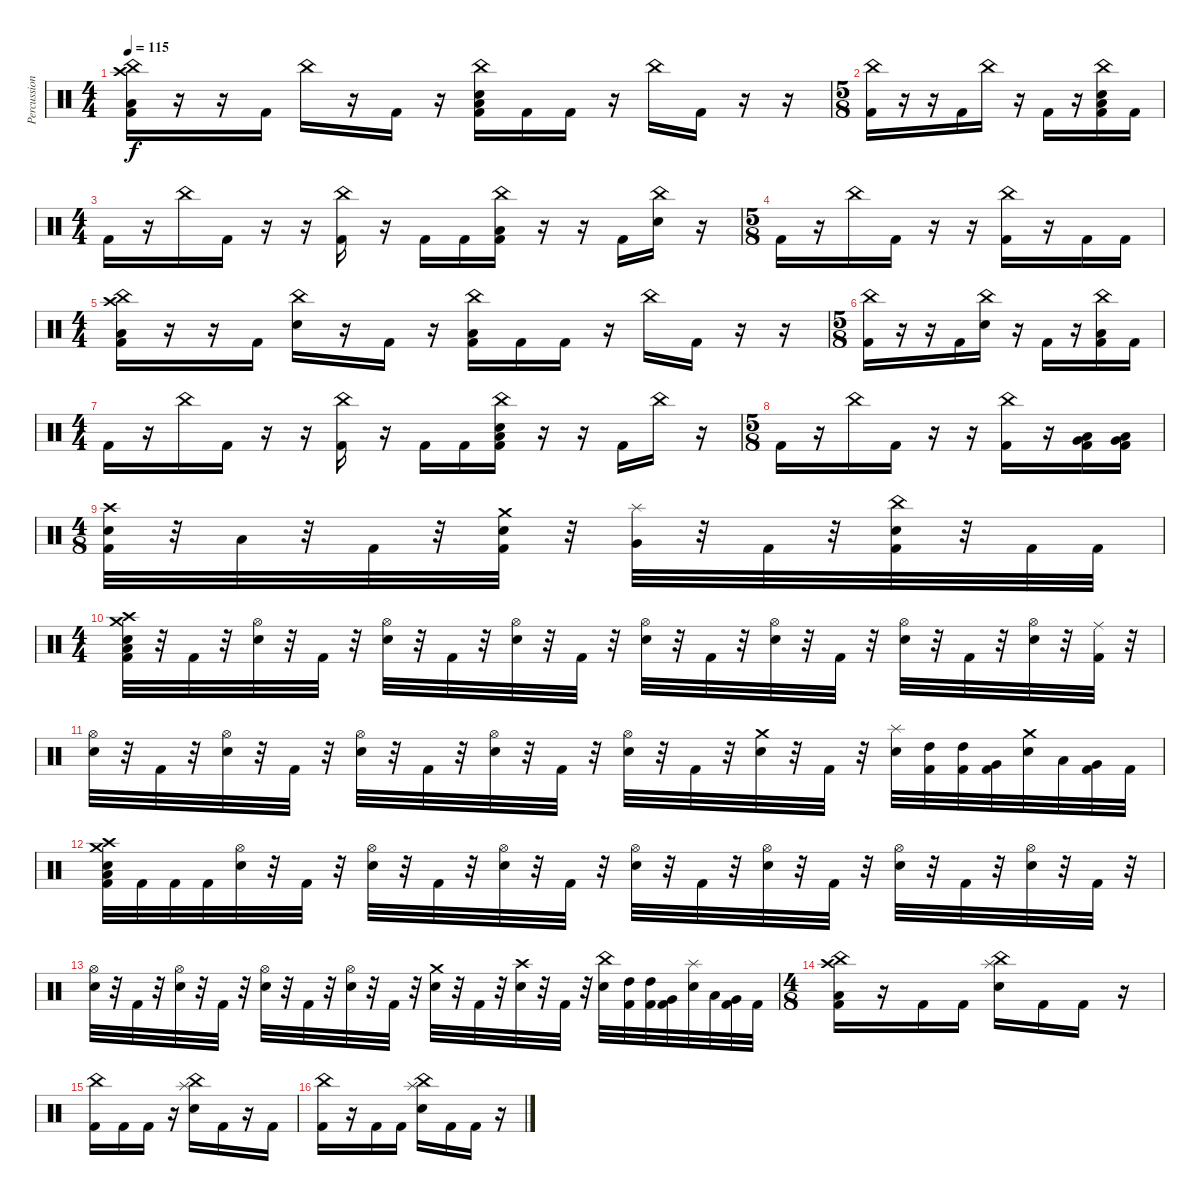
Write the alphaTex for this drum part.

\track ("Percussion" "Percussion") {instrument percussion}
\staff {score}
\articulation defaults
\ts (4 4)
\tempo 115
\clef neutral
\ks c
("China (hit)" "Crash high (hit)" "Low Floor Tom (hit)" "Kick (hit) 2").16{dy f} r.16 r.16 "Kick (hit) 2".16 "China (hit)".16 r.16 "Kick (hit) 2".16 r.16 ("China (hit)" "Electric Snare (hit)" "Low Floor Tom (hit)" "Kick (hit) 2").16 "Kick (hit) 2".16 "Kick (hit) 2".16 r.16 "China (hit)".16 "Kick (hit) 2".16 r.16 r.16 |
\ts (5 8)
("China (hit)" "Kick (hit) 2").16 r.16 r.16 "Kick (hit) 2".16 "China (hit)".16 r.16 "Kick (hit) 2".16 r.16 ("China (hit)" "Electric Snare (hit)" "Low Floor Tom (hit)" "Kick (hit) 2").16 "Kick (hit) 2".16 |
\ts (4 4)
"Kick (hit) 2".16 r.16 "China (hit)".16 "Kick (hit) 2".16 r.16 r.16 ("China (hit)" "Kick (hit) 2").16 r.16 "Kick (hit) 2".16 "Kick (hit) 2".16 ("China (hit)" "Low Floor Tom (hit)" "Kick (hit) 2").16 r.16 r.16 "Kick (hit) 2".16 ("China (hit)" "Electric Snare (hit)").16 r.16 |
\ts (5 8)
"Kick (hit) 2".16 r.16 "China (hit)".16 "Kick (hit) 2".16 r.16 r.16 ("China (hit)" "Kick (hit) 2").16 r.16 "Kick (hit) 2".16 "Kick (hit) 2".16 |
\ts (4 4)
("China (hit)" "Crash high (hit)" "Low Floor Tom (hit)" "Kick (hit) 2").16 r.16 r.16 "Kick (hit) 2".16 ("China (hit)" "Electric Snare (hit)").16 r.16 "Kick (hit) 2".16 r.16 ("China (hit)" "Low Floor Tom (hit)" "Kick (hit) 2").16 "Kick (hit) 2".16 "Kick (hit) 2".16 r.16 "China (hit)".16 "Kick (hit) 2".16 r.16 r.16 |
\ts (5 8)
("China (hit)" "Kick (hit) 2").16 r.16 r.16 "Kick (hit) 2".16 ("China (hit)" "Electric Snare (hit)").16 r.16 "Kick (hit) 2".16 r.16 ("China (hit)" "Low Floor Tom (hit)" "Kick (hit) 2").16 "Kick (hit) 2".16 |
\ts (4 4)
"Kick (hit) 2".16 r.16 "China (hit)".16 "Kick (hit) 2".16 r.16 r.16 ("China (hit)" "Kick (hit) 2").16 r.16 "Kick (hit) 2".16 "Kick (hit) 2".16 ("China (hit)" "Electric Snare (hit)" "Low Floor Tom (hit)" "Kick (hit) 2").16 r.16 r.16 "Kick (hit) 2".16 "China (hit)".16 r.16 |
\ts (5 8)
"Kick (hit) 2".16 r.16 "China (hit)".16 "Kick (hit) 2".16 r.16 r.16 ("China (hit)" "Kick (hit) 2").16 r.16 ("Very Low Tom (hit)" "Low Floor Tom (hit)" "Kick (hit) 2").16 ("Very Low Tom (hit)" "Low Floor Tom (hit)" "Kick (hit) 2").16 |
\ts (4 8)
("Crash high (hit)" "Electric Snare (hit)" "Kick (hit) 2").32 r.32 "Low Tom (hit)".32 r.32 "Kick (hit) 2".32 r.32 ("Crash medium (hit)" "Electric Snare (hit)" "Kick (hit) 2").32 r.32 ("Splash (hit)" "Very Low Tom (hit)").32 r.32 "Kick (hit) 2".32 r.32 ("China (hit)" "Electric Snare (hit)" "Kick (hit) 2").32 r.32 "Kick (hit) 2".32 "Kick (hit) 2".32 |
\ts (4 4)
("Crash high (hit)" "Crash medium (hit)" "Electric Snare (hit)" "Low Floor Tom (hit)" "Kick (hit) 2").32 r.32 "Kick (hit) 2".32 r.32 ("Hi-Hat (open)" "Electric Snare (hit)").32 r.32 "Kick (hit) 2".32 r.32 ("Hi-Hat (open)" "Electric Snare (hit)").32 r.32 "Kick (hit) 2".32 r.32 ("Hi-Hat (open)" "Electric Snare (hit)").32 r.32 "Kick (hit) 2".32 r.32 ("Hi-Hat (open)" "Electric Snare (hit)").32 r.32 "Kick (hit) 2".32 r.32 ("Hi-Hat (open)" "Electric Snare (hit)").32 r.32 "Kick (hit) 2".32 r.32 ("Hi-Hat (open)" "Electric Snare (hit)").32 r.32 "Kick (hit) 2".32 r.32 ("Hi-Hat (open)" "Electric Snare (hit)").32 r.32 ("Ride (middle)" "Kick (hit) 2").32 r.32 |
("Hi-Hat (open)" "Electric Snare (hit)").32 r.32 "Kick (hit) 2".32 r.32 ("Hi-Hat (open)" "Electric Snare (hit)").32 r.32 "Kick (hit) 2".32 r.32 ("Hi-Hat (open)" "Electric Snare (hit)").32 r.32 "Kick (hit) 2".32 r.32 ("Hi-Hat (open)" "Electric Snare (hit)").32 r.32 "Kick (hit) 2".32 r.32 ("Hi-Hat (open)" "Electric Snare (hit)").32 r.32 "Kick (hit) 2".32 r.32 ("Crash medium (hit)" "Electric Snare (hit)").32 r.32 "Kick (hit) 2".32 r.32 ("Splash (hit)" "Electric Snare (hit)").32 ("High Tom (hit)" "Kick (hit) 2").32 ("High Tom (hit)" "Kick (hit) 2").32 ("Very Low Tom (hit)" "Kick (hit) 2").32 ("Crash medium (hit)" "Electric Snare (hit)").32 "Low Tom (hit)".32 ("Very Low Tom (hit)" "Kick (hit) 2").32 "Kick (hit) 2".32 |
("Crash high (hit)" "Crash medium (hit)" "Electric Snare (hit)" "Low Floor Tom (hit)" "Kick (hit) 2").32 "Kick (hit) 2".32 "Kick (hit) 2".32 "Kick (hit) 2".32 ("Hi-Hat (open)" "Electric Snare (hit)").32 r.32 "Kick (hit) 2".32 r.32 ("Hi-Hat (open)" "Electric Snare (hit)").32 r.32 "Kick (hit) 2".32 r.32 ("Hi-Hat (open)" "Electric Snare (hit)").32 r.32 "Kick (hit) 2".32 r.32 ("Hi-Hat (open)" "Electric Snare (hit)").32 r.32 "Kick (hit) 2".32 r.32 ("Hi-Hat (open)" "Electric Snare (hit)").32 r.32 "Kick (hit) 2".32 r.32 ("Hi-Hat (open)" "Electric Snare (hit)").32 r.32 "Kick (hit) 2".32 r.32 ("Hi-Hat (open)" "Electric Snare (hit)").32 r.32 "Kick (hit) 2".32 r.32 |
("Hi-Hat (open)" "Electric Snare (hit)").32 r.32 "Kick (hit) 2".32 r.32 ("Hi-Hat (open)" "Electric Snare (hit)").32 r.32 "Kick (hit) 2".32 r.32 ("Hi-Hat (open)" "Electric Snare (hit)").32 r.32 "Kick (hit) 2".32 r.32 ("Hi-Hat (open)" "Electric Snare (hit)").32 r.32 "Kick (hit) 2".32 r.32 ("Crash medium (hit)" "Electric Snare (hit)").32 r.32 "Kick (hit) 2".32 r.32 ("Crash high (hit)" "Electric Snare (hit)").32 r.32 "Kick (hit) 2".32 r.32 ("China (hit)" "Electric Snare (hit)").32 ("High Tom (hit)" "Kick (hit) 2").32 ("High Tom (hit)" "Kick (hit) 2").32 ("Very Low Tom (hit)" "Kick (hit) 2").32 ("Splash (hit)" "Electric Snare (hit)").32 "Low Tom (hit)".32 ("Very Low Tom (hit)" "Kick (hit) 2").32 "Kick (hit) 2".32 |
\ts (4 8)
("China (hit)" "Crash high (hit)" "Low Floor Tom (hit)" "Kick (hit) 2").16 r.16 "Kick (hit) 2".16 "Kick (hit) 2".16 ("China (hit)" "Splash (hit)" "Electric Snare (hit)").16 "Kick (hit) 2".16 "Kick (hit) 2".16 r.16 |
("China (hit)" "Kick (hit) 2").16 "Kick (hit) 2".16 "Kick (hit) 2".16 r.16 ("China (hit)" "Splash (hit)" "Electric Snare (hit)").16 "Kick (hit) 2".16 r.16 "Kick (hit) 2".16 |
("China (hit)" "Kick (hit) 2").16 r.16 "Kick (hit) 2".16 "Kick (hit) 2".16 ("China (hit)" "Splash (hit)" "Electric Snare (hit)").16 "Kick (hit) 2".16 "Kick (hit) 2".16 r.16
